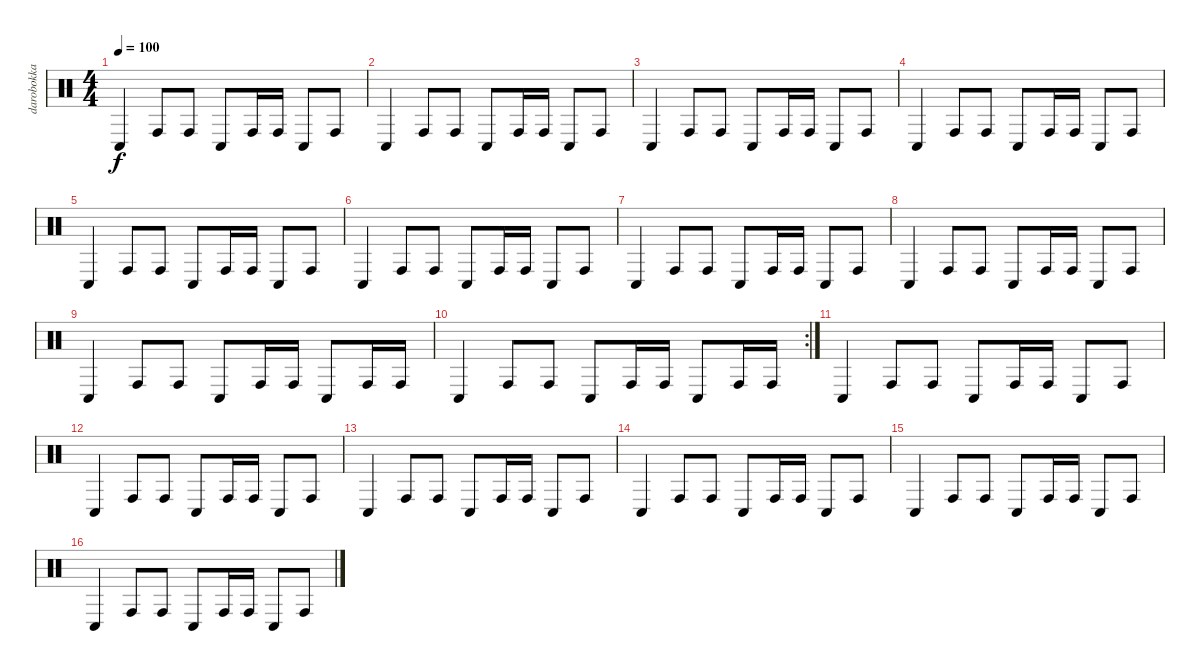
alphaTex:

\track ("darobokka" "darobokka") {instrument percussion}
\staff {score}
\articulation defaults
\ts (4 4)
\tempo 100
\clef neutral
\ks c "Conga low (hit)".4{dy f} "Conga high (hit)".8 "Conga high (hit)".8 "Conga low (hit)".8 "Conga high (hit)".16 "Conga high (hit)".16 "Conga low (hit)".8 "Conga high (hit)".8
|
"Conga low (hit)".4 "Conga high (hit)".8 "Conga high (hit)".8 "Conga low (hit)".8 "Conga high (hit)".16 "Conga high (hit)".16 "Conga low (hit)".8 "Conga high (hit)".8 |
"Conga low (hit)".4 "Conga high (hit)".8 "Conga high (hit)".8 "Conga low (hit)".8 "Conga high (hit)".16 "Conga high (hit)".16 "Conga low (hit)".8 "Conga high (hit)".8 |
"Conga low (hit)".4 "Conga high (hit)".8 "Conga high (hit)".8 "Conga low (hit)".8 "Conga high (hit)".16 "Conga high (hit)".16 "Conga low (hit)".8 "Conga high (hit)".8 |
"Conga low (hit)".4 "Conga high (hit)".8 "Conga high (hit)".8 "Conga low (hit)".8 "Conga high (hit)".16 "Conga high (hit)".16 "Conga low (hit)".8 "Conga high (hit)".8 |
"Conga low (hit)".4 "Conga high (hit)".8 "Conga high (hit)".8 "Conga low (hit)".8 "Conga high (hit)".16 "Conga high (hit)".16 "Conga low (hit)".8 "Conga high (hit)".8 |
"Conga low (hit)".4 "Conga high (hit)".8 "Conga high (hit)".8 "Conga low (hit)".8 "Conga high (hit)".16 "Conga high (hit)".16 "Conga low (hit)".8 "Conga high (hit)".8 |
"Conga low (hit)".4 "Conga high (hit)".8 "Conga high (hit)".8 "Conga low (hit)".8 "Conga high (hit)".16 "Conga high (hit)".16 "Conga low (hit)".8 "Conga high (hit)".8 |
"Conga low (hit)".4 "Conga high (hit)".8 "Conga high (hit)".8 "Conga low (hit)".8 "Conga high (hit)".16 "Conga high (hit)".16 "Conga low (hit)".8 "Conga high (hit)".16 "Conga high (hit)".16 |
\rc 2 "Conga low (hit)".4 "Conga high (hit)".8 "Conga high (hit)".8 "Conga low (hit)".8 "Conga high (hit)".16 "Conga high (hit)".16 "Conga low (hit)".8 "Conga high (hit)".16 "Conga high (hit)".16
|
"Conga low (hit)".4 "Conga high (hit)".8 "Conga high (hit)".8 "Conga low (hit)".8 "Conga high (hit)".16 "Conga high (hit)".16 "Conga low (hit)".8 "Conga high (hit)".8 |
"Conga low (hit)".4 "Conga high (hit)".8 "Conga high (hit)".8 "Conga low (hit)".8 "Conga high (hit)".16 "Conga high (hit)".16 "Conga low (hit)".8 "Conga high (hit)".8 |
"Conga low (hit)".4 "Conga high (hit)".8 "Conga high (hit)".8 "Conga low (hit)".8 "Conga high (hit)".16 "Conga high (hit)".16 "Conga low (hit)".8 "Conga high (hit)".8 |
"Conga low (hit)".4 "Conga high (hit)".8 "Conga high (hit)".8 "Conga low (hit)".8 "Conga high (hit)".16 "Conga high (hit)".16 "Conga low (hit)".8 "Conga high (hit)".8 |
"Conga low (hit)".4 "Conga high (hit)".8 "Conga high (hit)".8 "Conga low (hit)".8 "Conga high (hit)".16 "Conga high (hit)".16 "Conga low (hit)".8 "Conga high (hit)".8 |
"Conga low (hit)".4 "Conga high (hit)".8 "Conga high (hit)".8 "Conga low (hit)".8 "Conga high (hit)".16 "Conga high (hit)".16 "Conga low (hit)".8 "Conga high (hit)".8
